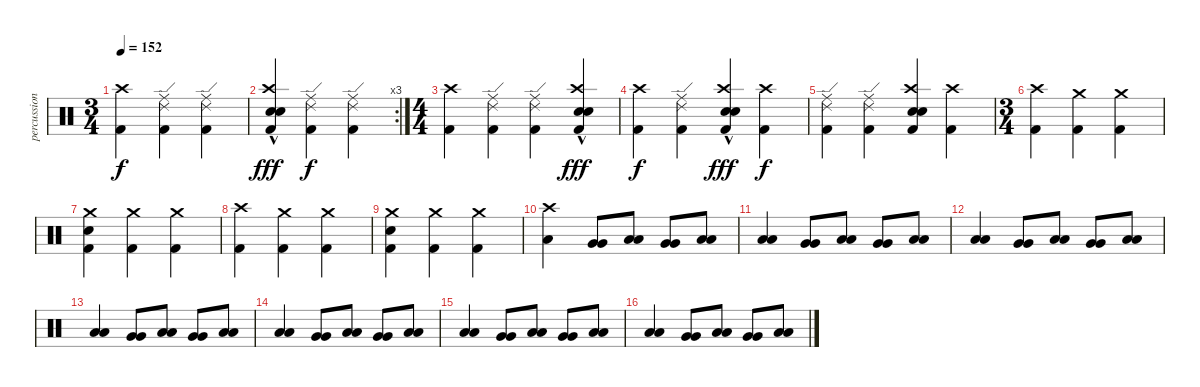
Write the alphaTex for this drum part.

\track ("percussion" "percussion") {instrument percussion bank 177}
\staff {score}
\articulation defaults
\ts (3 4)
\tempo 152
\clef neutral
\ks c
("Kick (hit) 2" "Crash high (hit)").4{dy f} ("Kick (hit) 2" "Ride (edge) 2" "Ride (middle)").4 ("Kick (hit) 2" "Ride (edge) 2" "Ride (middle)").4 |
\rc 3
("Kick (hit) 2" "Electric Snare (hit)"{hac} "Electric Snare (hit)"{hac} "Crash high (hit)").4{dy fff} ("Kick (hit) 2" "Ride (edge) 2" "Ride (middle)").4{dy f} ("Kick (hit) 2" "Ride (edge) 2" "Ride (middle)").4 |
\ts (4 4)
("Kick (hit) 2" "Crash high (hit)").4 ("Kick (hit) 2" "Ride (edge) 2" "Ride (middle)").4 ("Kick (hit) 2" "Ride (edge) 2" "Ride (middle)").4 ("Kick (hit) 2" "Electric Snare (hit)"{hac} "Electric Snare (hit)"{hac} "Crash high (hit)").4{dy fff} |
("Kick (hit) 2" "Crash high (hit)").4{dy f} ("Kick (hit) 2" "Ride (edge) 2" "Ride (middle)").4 ("Kick (hit) 2" "Electric Snare (hit)"{hac} "Electric Snare (hit)"{hac} "Crash high (hit)").4{dy fff} ("Kick (hit) 2" "Crash high (hit)").4{dy f} |
("Kick (hit) 2" "Ride (edge) 2" "Ride (middle)").4 ("Kick (hit) 2" "Ride (edge) 2" "Ride (middle)").4 ("Kick (hit) 2" "Electric Snare (hit)" "Electric Snare (hit)" "Crash high (hit)").4 ("Kick (hit) 2" "Crash high (hit)").4 |
\ts (3 4)
("Kick (hit) 2" "Crash high (hit)").4 ("Kick (hit) 2" "Crash medium (hit)").4 ("Kick (hit) 2" "Crash medium (hit)").4 |
("Kick (hit) 2" "Electric Snare (hit)" "Crash medium (hit)").4 ("Kick (hit) 2" "Crash medium (hit)").4 ("Kick (hit) 2" "Crash medium (hit)").4 |
("Kick (hit) 2" "Crash high (hit)").4 ("Kick (hit) 2" "Crash medium (hit)").4 ("Kick (hit) 2" "Crash medium (hit)").4 |
("Kick (hit) 2" "Electric Snare (hit)" "Crash medium (hit)").4 ("Kick (hit) 2" "Crash medium (hit)").4 ("Kick (hit) 2" "Crash medium (hit)").4 |
("Low Tom (hit)" "Crash high (hit)").4 ("Very Low Tom (hit)" "Very Low Tom (hit)").8 ("Low Tom (hit)" "Low Tom (hit)").8 ("Very Low Tom (hit)" "Very Low Tom (hit)").8 ("Low Tom (hit)" "Low Tom (hit)").8 |
("Low Tom (hit)" "Low Tom (hit)").4 ("Very Low Tom (hit)" "Very Low Tom (hit)").8 ("Low Tom (hit)" "Low Tom (hit)").8 ("Very Low Tom (hit)" "Very Low Tom (hit)").8 ("Low Tom (hit)" "Low Tom (hit)").8 |
("Low Tom (hit)" "Low Tom (hit)").4 ("Very Low Tom (hit)" "Very Low Tom (hit)").8 ("Low Tom (hit)" "Low Tom (hit)").8 ("Very Low Tom (hit)" "Very Low Tom (hit)").8 ("Low Tom (hit)" "Low Tom (hit)").8 |
("Low Tom (hit)" "Low Tom (hit)").4 ("Very Low Tom (hit)" "Very Low Tom (hit)").8 ("Low Tom (hit)" "Low Tom (hit)").8 ("Very Low Tom (hit)" "Very Low Tom (hit)").8 ("Low Tom (hit)" "Low Tom (hit)").8 |
("Low Tom (hit)" "Low Tom (hit)").4 ("Very Low Tom (hit)" "Very Low Tom (hit)").8 ("Low Tom (hit)" "Low Tom (hit)").8 ("Very Low Tom (hit)" "Very Low Tom (hit)").8 ("Low Tom (hit)" "Low Tom (hit)").8 |
("Low Tom (hit)" "Low Tom (hit)").4 ("Very Low Tom (hit)" "Very Low Tom (hit)").8 ("Low Tom (hit)" "Low Tom (hit)").8 ("Very Low Tom (hit)" "Very Low Tom (hit)").8 ("Low Tom (hit)" "Low Tom (hit)").8 |
("Low Tom (hit)" "Low Tom (hit)").4 ("Very Low Tom (hit)" "Very Low Tom (hit)").8 ("Low Tom (hit)" "Low Tom (hit)").8 ("Very Low Tom (hit)" "Very Low Tom (hit)").8 ("Low Tom (hit)" "Low Tom (hit)").8
